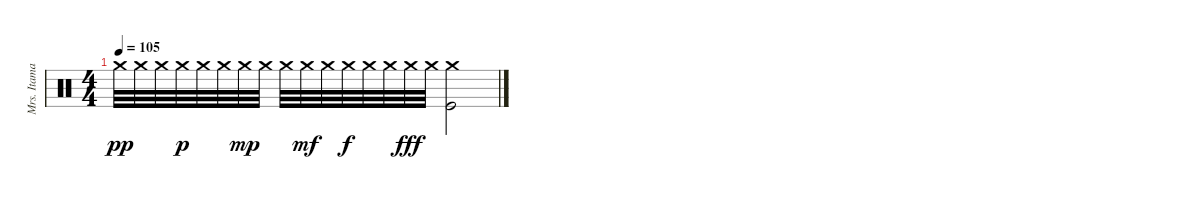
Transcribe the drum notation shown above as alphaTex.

\track ("Mrs. Itamar" "Mrs. Itama") {instrument percussion}
\staff {score}
\articulation defaults
\ts (4 4)
\tempo 105
\clef neutral
\ks c "Crash medium (hit)".32{dy pp} "Crash medium (hit)".32 "Crash medium (hit)".32 "Crash medium (hit)".32{dy p} "Crash medium (hit)".32 "Crash medium (hit)".32 "Crash medium (hit)".32{dy mp} "Crash medium (hit)".32 "Crash medium (hit)".32 "Crash medium (hit)".32{dy mf} "Crash medium (hit)".32 "Crash medium (hit)".32{dy f} "Crash medium (hit)".32 "Crash medium (hit)".32 "Crash medium (hit)".32{dy fff} "Crash medium (hit)".32
("Kick (hit)" "Crash medium (hit)").2
